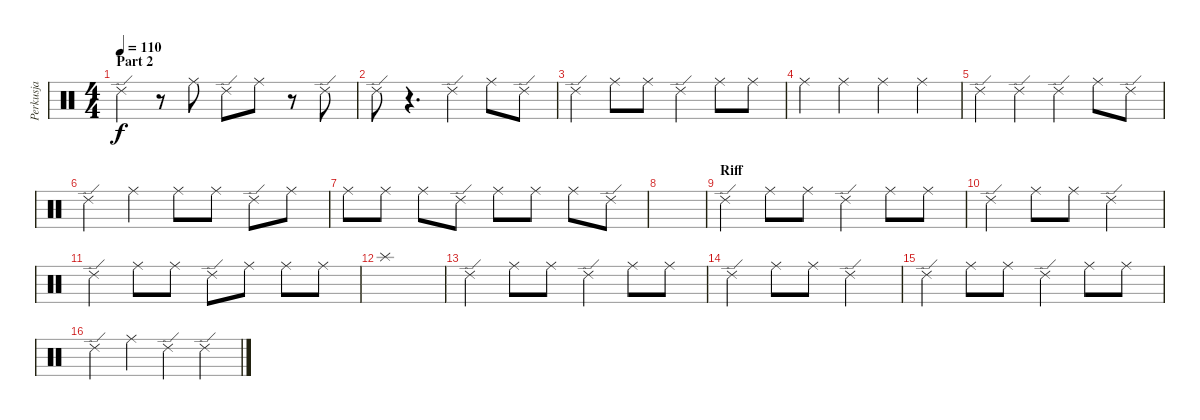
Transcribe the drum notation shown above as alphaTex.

\track ("Perkusja" "Perkusja") {instrument percussion}
\staff {score}
\articulation defaults
\ts (4 4)
\section ("" "Part 2")
\tempo 110
\clef neutral
\ks c "Ride (edge) 2".4{dy f}
r.8 "Ride (middle)".8 "Ride (edge) 2".8 "Ride (middle)".8 r.8 "Ride (edge) 2".8 |
"Ride (edge) 2".8 r.4{d} "Ride (edge) 2".4 "Ride (middle)".8 "Ride (edge) 2".8 |
"Ride (edge) 2".4 "Ride (middle)".8 "Ride (middle)".8 "Ride (edge) 2".4 "Ride (middle)".8 "Ride (middle)".8 |
"Ride (middle)".4 "Ride (middle)".4 "Ride (middle)".4 "Ride (middle)".4 |
"Ride (edge) 2".4 "Ride (edge) 2".4 "Ride (edge) 2".4 "Ride (middle)".8 "Ride (edge) 2".8 |
"Ride (edge) 2".4 "Ride (middle)".4 "Ride (middle)".8 "Ride (middle)".8 "Ride (edge) 2".8 "Ride (middle)".8 |
"Ride (middle)".8 "Ride (middle)".8 "Ride (middle)".8 "Ride (edge) 2".8 "Ride (middle)".8 "Ride (middle)".8 "Ride (middle)".8 "Ride (edge) 2".8 |
|
\section ("" "Riff")
"Ride (edge) 2".4 "Ride (middle)".8 "Ride (middle)".8 "Ride (edge) 2".4 "Ride (middle)".8 "Ride (middle)".8 |
"Ride (edge) 2".4 "Ride (middle)".8 "Ride (middle)".8 "Ride (edge) 2".2 |
"Ride (edge) 2".4 "Ride (middle)".8 "Ride (middle)".8 "Ride (edge) 2".8 "Ride (middle)".8 "Ride (middle)".8 "Ride (middle)".8 |
"Splash (hit)".1 |
"Ride (edge) 2".4 "Ride (middle)".8 "Ride (middle)".8 "Ride (edge) 2".4 "Ride (middle)".8 "Ride (middle)".8 |
"Ride (edge) 2".4 "Ride (middle)".8 "Ride (middle)".8 "Ride (edge) 2".2 |
"Ride (edge) 2".4 "Ride (middle)".8 "Ride (middle)".8 "Ride (edge) 2".4 "Ride (middle)".8 "Ride (middle)".8 |
"Ride (edge) 2".4 "Ride (middle)".4 "Ride (edge) 2".4 "Ride (edge) 2".4
